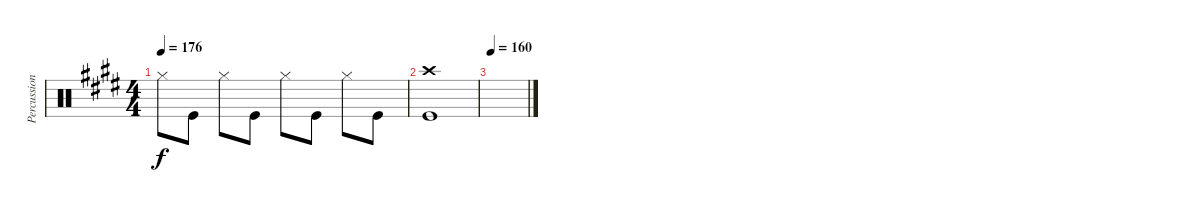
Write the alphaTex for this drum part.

\track ("Percussion" "Percussion") {instrument percussion}
\staff {score}
\articulation defaults
\ts (4 4)
\tempo 176
\clef neutral
\ks c#minor "Hi-Hat (closed)".8{dy f} "Kick (hit)".8 "Hi-Hat (closed)".8 "Kick (hit)".8 "Hi-Hat (closed)".8 "Kick (hit)".8 "Hi-Hat (closed)".8 "Kick (hit)".8
|
("Crash high (hit)" "Kick (hit)").1 |
\tempo 160
